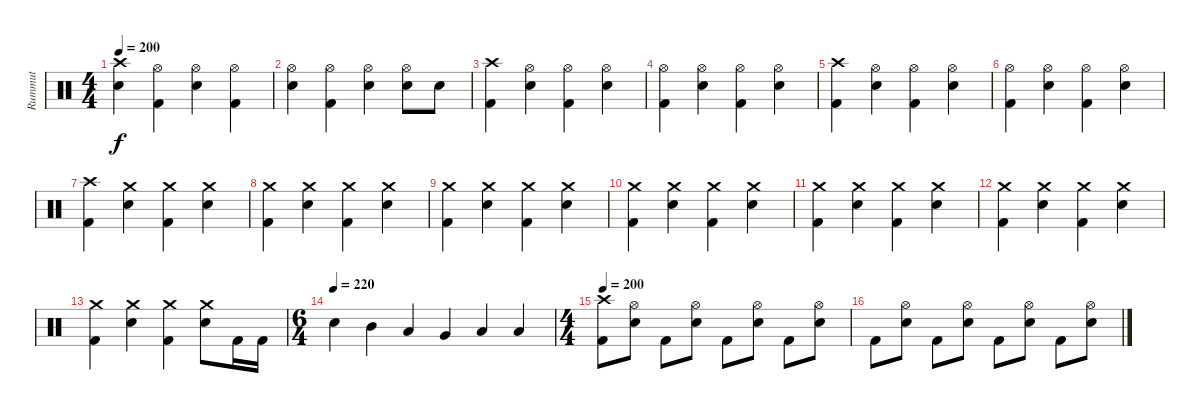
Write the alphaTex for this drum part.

\track ("Rummut" "Rummut") {instrument percussion}
\staff {score}
\articulation defaults
\ts (4 4)
\tempo 200
\clef neutral
\ks c
("Crash high (hit)" "Electric Snare (hit)").4{dy f} ("Hi-Hat (open)" "Kick (hit) 2").4 ("Hi-Hat (open)" "Electric Snare (hit)").4 ("Hi-Hat (open)" "Kick (hit) 2").4 |
("Hi-Hat (open)" "Electric Snare (hit)").4 ("Hi-Hat (open)" "Kick (hit) 2").4 ("Hi-Hat (open)" "Electric Snare (hit)").4 ("Hi-Hat (open)" "Electric Snare (hit)").8 "Electric Snare (hit)".8 |
("Crash high (hit)" "Kick (hit) 2").4 ("Hi-Hat (open)" "Electric Snare (hit)").4 ("Hi-Hat (open)" "Kick (hit) 2").4 ("Hi-Hat (open)" "Electric Snare (hit)").4 |
("Hi-Hat (open)" "Kick (hit) 2").4 ("Hi-Hat (open)" "Electric Snare (hit)").4 ("Hi-Hat (open)" "Kick (hit) 2").4 ("Hi-Hat (open)" "Electric Snare (hit)").4 |
("Crash high (hit)" "Kick (hit) 2").4 ("Hi-Hat (open)" "Electric Snare (hit)").4 ("Hi-Hat (open)" "Kick (hit) 2").4 ("Hi-Hat (open)" "Electric Snare (hit)").4 |
("Hi-Hat (open)" "Kick (hit) 2").4 ("Hi-Hat (open)" "Electric Snare (hit)").4 ("Hi-Hat (open)" "Kick (hit) 2").4 ("Hi-Hat (open)" "Electric Snare (hit)").4 |
("Crash high (hit)" "Kick (hit) 2").4 ("Crash medium (hit)" "Electric Snare (hit)").4 ("Crash medium (hit)" "Kick (hit) 2").4 ("Crash medium (hit)" "Electric Snare (hit)").4 |
("Crash medium (hit)" "Kick (hit) 2").4 ("Crash medium (hit)" "Electric Snare (hit)").4 ("Crash medium (hit)" "Kick (hit) 2").4 ("Crash medium (hit)" "Electric Snare (hit)").4 |
("Crash medium (hit)" "Kick (hit) 2").4 ("Crash medium (hit)" "Electric Snare (hit)").4 ("Crash medium (hit)" "Kick (hit) 2").4 ("Crash medium (hit)" "Electric Snare (hit)").4 |
("Crash medium (hit)" "Kick (hit) 2").4 ("Crash medium (hit)" "Electric Snare (hit)").4 ("Crash medium (hit)" "Kick (hit) 2").4 ("Crash medium (hit)" "Electric Snare (hit)").4 |
("Crash medium (hit)" "Kick (hit) 2").4 ("Crash medium (hit)" "Electric Snare (hit)").4 ("Crash medium (hit)" "Kick (hit) 2").4 ("Crash medium (hit)" "Electric Snare (hit)").4 |
("Crash medium (hit)" "Kick (hit) 2").4 ("Crash medium (hit)" "Electric Snare (hit)").4 ("Crash medium (hit)" "Kick (hit) 2").4 ("Crash medium (hit)" "Electric Snare (hit)").4 |
("Crash medium (hit)" "Kick (hit) 2").4 ("Crash medium (hit)" "Electric Snare (hit)").4 ("Crash medium (hit)" "Kick (hit) 2").4 ("Crash medium (hit)" "Electric Snare (hit)").8 "Kick (hit) 2".16 "Kick (hit) 2".16 |
\ts (6 4)
\tempo (220)
"Electric Snare (hit)".4 "Mid Tom (hit)".4 "Low Tom (hit)".4 "Very Low Tom (hit)".4 "Low Floor Tom (hit)".4 "Low Floor Tom (hit)".4 |
\ts (4 4)
\tempo 200
("Crash high (hit)" "Kick (hit) 2").8 ("Hi-Hat (open)" "Electric Snare (hit)").8 "Kick (hit) 2".8 ("Hi-Hat (open)" "Electric Snare (hit)").8 "Kick (hit) 2".8 ("Hi-Hat (open)" "Electric Snare (hit)").8 "Kick (hit) 2".8 ("Hi-Hat (open)" "Electric Snare (hit)").8 |
"Kick (hit) 2".8 ("Hi-Hat (open)" "Electric Snare (hit)").8 "Kick (hit) 2".8 ("Hi-Hat (open)" "Electric Snare (hit)").8 "Kick (hit) 2".8 ("Hi-Hat (open)" "Electric Snare (hit)").8 "Kick (hit) 2".8 ("Hi-Hat (open)" "Electric Snare (hit)").8
